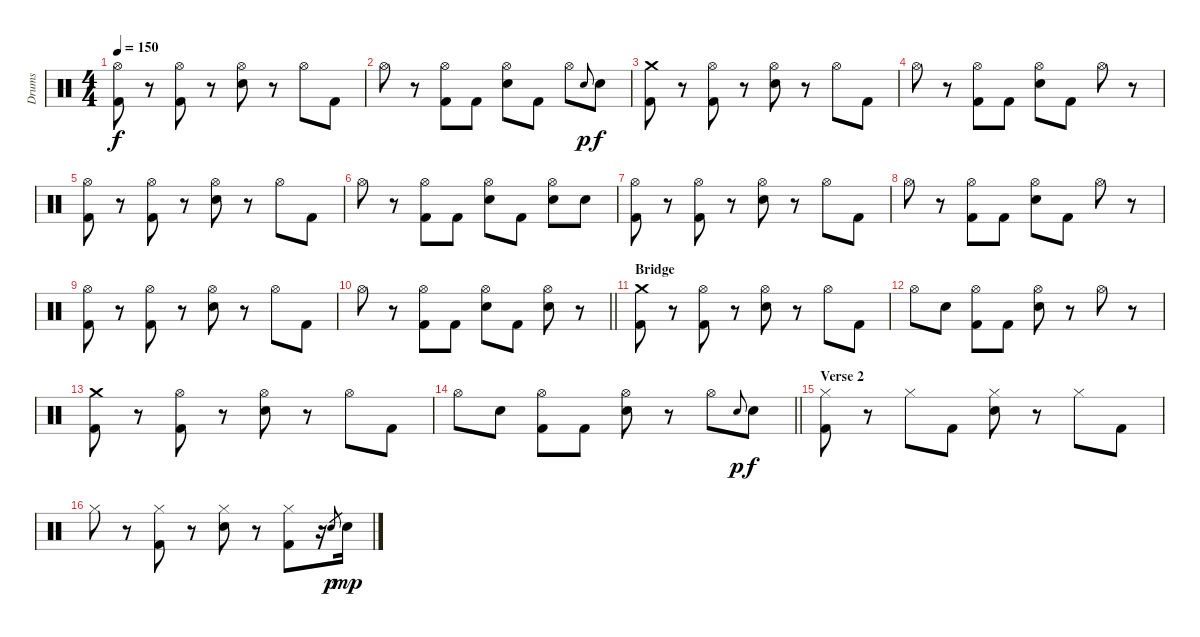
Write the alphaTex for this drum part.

\track ("Drums" "Drums") {instrument percussion}
\staff {score}
\articulation defaults
\ts (4 4)
\tempo 150
\clef neutral
\ks c
("Hi-Hat (open)" "Kick (hit) 2").8{dy f} r.8 ("Hi-Hat (open)" "Kick (hit) 2").8 r.8 ("Hi-Hat (open)" "Snare (hit) 2").8 r.8 "Hi-Hat (open)".8 "Kick (hit) 2".8 |
"Hi-Hat (open)".8 r.8 ("Hi-Hat (open)" "Kick (hit) 2").8 "Kick (hit) 2".8 ("Hi-Hat (open)" "Snare (hit) 2").8 "Kick (hit) 2".8 "Hi-Hat (open)".8 "Snare (hit)".8{gr onbeat dy p} "Snare (hit) 2".8{dy f} |
("Crash medium (hit)" "Kick (hit) 2").8 r.8 ("Hi-Hat (open)" "Kick (hit) 2").8 r.8 ("Hi-Hat (open)" "Snare (hit) 2").8 r.8 "Hi-Hat (open)".8 "Kick (hit) 2".8 |
"Hi-Hat (open)".8 r.8 ("Hi-Hat (open)" "Kick (hit) 2").8 "Kick (hit) 2".8 ("Hi-Hat (open)" "Snare (hit) 2").8 "Kick (hit) 2".8 "Hi-Hat (open)".8 r.8 |
("Hi-Hat (open)" "Kick (hit) 2").8 r.8 ("Hi-Hat (open)" "Kick (hit) 2").8 r.8 ("Hi-Hat (open)" "Snare (hit) 2").8 r.8 "Hi-Hat (open)".8 "Kick (hit) 2".8 |
"Hi-Hat (open)".8 r.8 ("Hi-Hat (open)" "Kick (hit) 2").8 "Kick (hit) 2".8 ("Hi-Hat (open)" "Snare (hit) 2").8 "Kick (hit) 2".8 ("Hi-Hat (open)" "Snare (hit) 2").8 "Snare (hit) 2".8 |
("Hi-Hat (open)" "Kick (hit) 2").8 r.8 ("Hi-Hat (open)" "Kick (hit) 2").8 r.8 ("Hi-Hat (open)" "Snare (hit) 2").8 r.8 "Hi-Hat (open)".8 "Kick (hit) 2".8 |
"Hi-Hat (open)".8 r.8 ("Hi-Hat (open)" "Kick (hit) 2").8 "Kick (hit) 2".8 ("Hi-Hat (open)" "Snare (hit) 2").8 "Kick (hit) 2".8 "Hi-Hat (open)".8 r.8 |
("Hi-Hat (open)" "Kick (hit) 2").8 r.8 ("Hi-Hat (open)" "Kick (hit) 2").8 r.8 ("Hi-Hat (open)" "Snare (hit) 2").8 r.8 "Hi-Hat (open)".8 "Kick (hit) 2".8 |
\barLineRight lightlight "Hi-Hat (open)".8
r.8 ("Hi-Hat (open)" "Kick (hit) 2").8 "Kick (hit) 2".8 ("Hi-Hat (open)" "Snare (hit) 2").8 "Kick (hit) 2".8 ("Hi-Hat (open)" "Snare (hit) 2").8 r.8 |
\section ("" "Bridge")
("Crash medium (hit)" "Kick (hit) 2").8 r.8 ("Hi-Hat (open)" "Kick (hit) 2").8 r.8 ("Hi-Hat (open)" "Snare (hit) 2").8 r.8 "Hi-Hat (open)".8 "Kick (hit) 2".8 |
"Hi-Hat (open)".8 "Snare (hit) 2".8 ("Hi-Hat (open)" "Kick (hit) 2").8 "Kick (hit) 2".8 ("Hi-Hat (open)" "Snare (hit) 2").8 r.8 "Hi-Hat (open)".8 r.8 |
("Crash medium (hit)" "Kick (hit) 2").8 r.8 ("Hi-Hat (open)" "Kick (hit) 2").8 r.8 ("Hi-Hat (open)" "Snare (hit) 2").8 r.8 "Hi-Hat (open)".8 "Kick (hit) 2".8 |
\barLineRight lightlight "Hi-Hat (open)".8 "Snare (hit) 2".8
("Hi-Hat (open)" "Kick (hit) 2").8 "Kick (hit) 2".8 ("Hi-Hat (open)" "Snare (hit) 2").8 r.8 "Hi-Hat (open)".8 "Snare (hit)".8{gr onbeat dy p} "Snare (hit) 2".8{dy f} |
\section ("" "Verse 2")
("Hi-Hat (closed)" "Kick (hit) 2").8 r.8 "Hi-Hat (closed)".8 "Kick (hit) 2".8 ("Hi-Hat (closed)" "Snare (hit) 2").8 r.8 "Hi-Hat (closed)".8 "Kick (hit) 2".8 |
"Hi-Hat (closed)".8 r.8 ("Hi-Hat (closed)" "Kick (hit) 2").8 r.8 ("Hi-Hat (closed)" "Snare (hit) 2").8 r.8 ("Hi-Hat (closed)" "Kick (hit) 2").8 r.16 "Snare (hit)".8{gr dy p} "Snare (hit) 2".16{dy mp}
